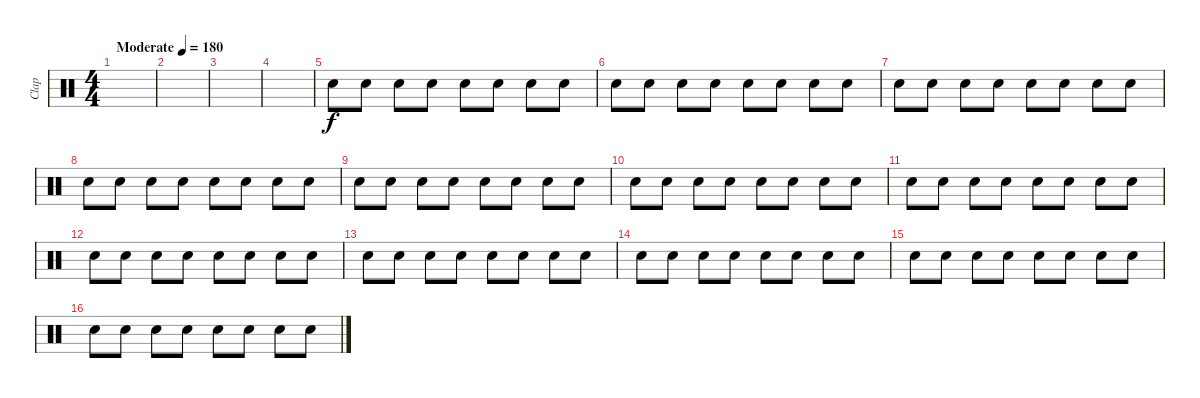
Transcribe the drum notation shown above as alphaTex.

\track ("Clap" "Clap") {instrument percussion}
\staff {score}
\articulation defaults
\ts (4 4)
\tempo (180 "Moderate")
\clef neutral
\ks c
|
|
|
|
"Hand Clap (hit)".8 "Hand Clap (hit)".8 "Hand Clap (hit)".8 "Hand Clap (hit)".8 "Hand Clap (hit)".8 "Hand Clap (hit)".8 "Hand Clap (hit)".8 "Hand Clap (hit)".8 |
"Hand Clap (hit)".8 "Hand Clap (hit)".8 "Hand Clap (hit)".8 "Hand Clap (hit)".8 "Hand Clap (hit)".8 "Hand Clap (hit)".8 "Hand Clap (hit)".8 "Hand Clap (hit)".8 |
"Hand Clap (hit)".8 "Hand Clap (hit)".8 "Hand Clap (hit)".8 "Hand Clap (hit)".8 "Hand Clap (hit)".8 "Hand Clap (hit)".8 "Hand Clap (hit)".8 "Hand Clap (hit)".8 |
"Hand Clap (hit)".8 "Hand Clap (hit)".8 "Hand Clap (hit)".8 "Hand Clap (hit)".8 "Hand Clap (hit)".8 "Hand Clap (hit)".8 "Hand Clap (hit)".8 "Hand Clap (hit)".8 |
"Hand Clap (hit)".8 "Hand Clap (hit)".8 "Hand Clap (hit)".8 "Hand Clap (hit)".8 "Hand Clap (hit)".8 "Hand Clap (hit)".8 "Hand Clap (hit)".8 "Hand Clap (hit)".8 |
"Hand Clap (hit)".8 "Hand Clap (hit)".8 "Hand Clap (hit)".8 "Hand Clap (hit)".8 "Hand Clap (hit)".8 "Hand Clap (hit)".8 "Hand Clap (hit)".8 "Hand Clap (hit)".8 |
"Hand Clap (hit)".8 "Hand Clap (hit)".8 "Hand Clap (hit)".8 "Hand Clap (hit)".8 "Hand Clap (hit)".8 "Hand Clap (hit)".8 "Hand Clap (hit)".8 "Hand Clap (hit)".8 |
"Hand Clap (hit)".8 "Hand Clap (hit)".8 "Hand Clap (hit)".8 "Hand Clap (hit)".8 "Hand Clap (hit)".8 "Hand Clap (hit)".8 "Hand Clap (hit)".8 "Hand Clap (hit)".8 |
"Hand Clap (hit)".8 "Hand Clap (hit)".8 "Hand Clap (hit)".8 "Hand Clap (hit)".8 "Hand Clap (hit)".8 "Hand Clap (hit)".8 "Hand Clap (hit)".8 "Hand Clap (hit)".8 |
"Hand Clap (hit)".8 "Hand Clap (hit)".8 "Hand Clap (hit)".8 "Hand Clap (hit)".8 "Hand Clap (hit)".8 "Hand Clap (hit)".8 "Hand Clap (hit)".8 "Hand Clap (hit)".8 |
"Hand Clap (hit)".8 "Hand Clap (hit)".8 "Hand Clap (hit)".8 "Hand Clap (hit)".8 "Hand Clap (hit)".8 "Hand Clap (hit)".8 "Hand Clap (hit)".8 "Hand Clap (hit)".8 |
"Hand Clap (hit)".8 "Hand Clap (hit)".8 "Hand Clap (hit)".8 "Hand Clap (hit)".8 "Hand Clap (hit)".8 "Hand Clap (hit)".8 "Hand Clap (hit)".8 "Hand Clap (hit)".8
